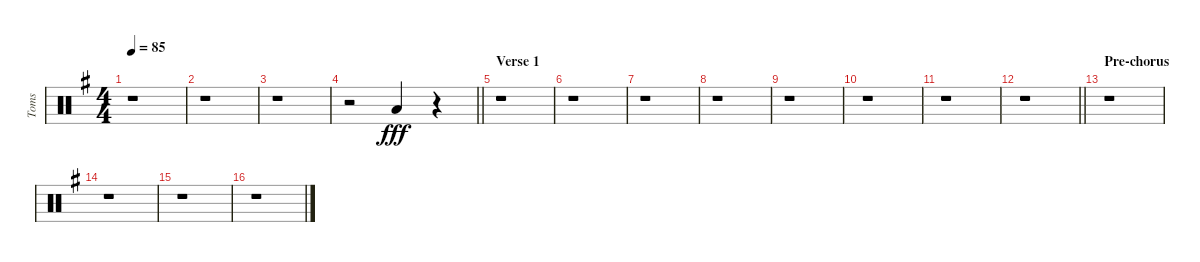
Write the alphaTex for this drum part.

\track ("Toms" "Toms") {instrument percussion}
\staff {score}
\articulation defaults
\ts (4 4)
\tempo 85
\clef neutral
\ks g
r.1{dy fff} |
r.1 |
r.1 |
\barLineRight lightlight
r.2 "Low Tom (hit)".4{volume 16 balance 5} r.4 |
\section ("" "Verse 1")
r.1 |
r.1 |
r.1 |
r.1 |
r.1 |
r.1 |
r.1 |
\barLineRight lightlight
r.1 |
\section ("" "Pre-chorus")
r.1 |
r.1 |
r.1 |
r.1
